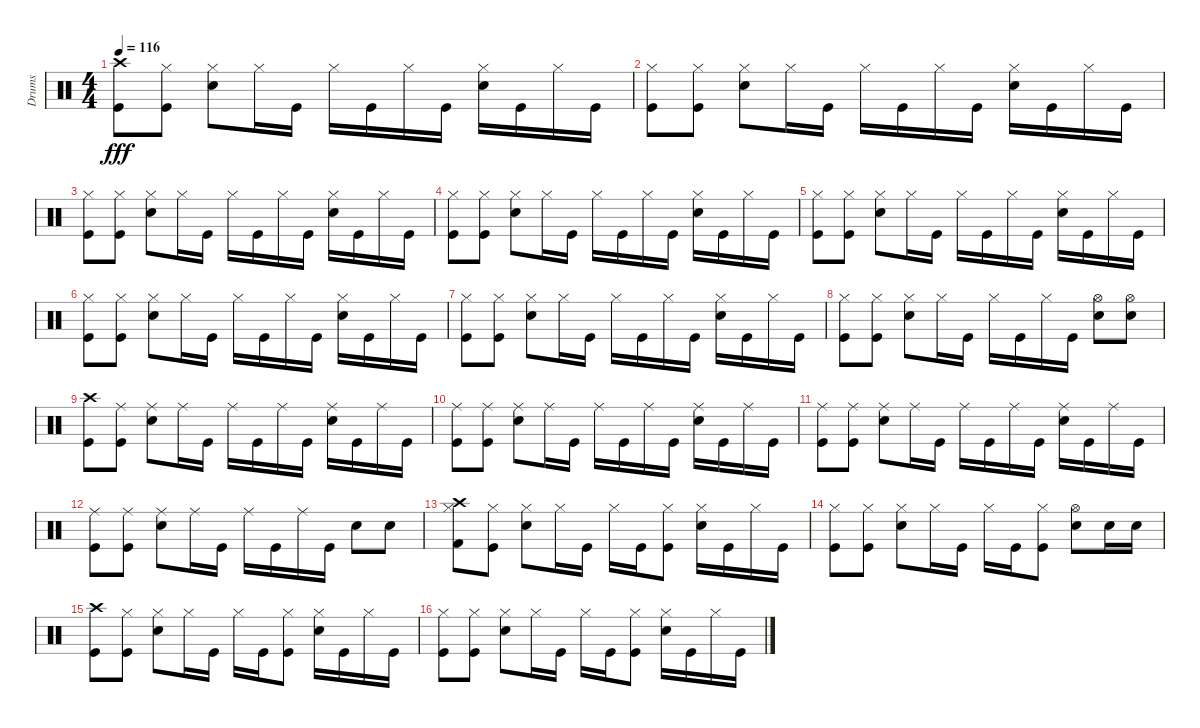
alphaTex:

\track ("Drums" "Drums") {instrument percussion}
\staff {score}
\articulation defaults
\ts (4 4)
\tempo 116
\clef neutral
\ks c
("Kick (hit)" "Crash high (hit)").8{dy fff} ("Hi-Hat (closed)" "Kick (hit)").8 ("Snare (hit) 2" "Hi-Hat (closed)").8 "Hi-Hat (closed)".16 "Kick (hit)".16 "Hi-Hat (closed)".16 "Kick (hit)".16 "Hi-Hat (closed)".16 "Kick (hit)".16 ("Snare (hit) 2" "Hi-Hat (closed)").16 "Kick (hit)".16 "Hi-Hat (closed)".16 "Kick (hit)".16 |
("Hi-Hat (closed)" "Kick (hit)").8 ("Hi-Hat (closed)" "Kick (hit)").8 ("Snare (hit) 2" "Hi-Hat (closed)").8 "Hi-Hat (closed)".16 "Kick (hit)".16 "Hi-Hat (closed)".16 "Kick (hit)".16 "Hi-Hat (closed)".16 "Kick (hit)".16 ("Hi-Hat (closed)" "Snare (hit) 2").16 "Kick (hit)".16 "Hi-Hat (closed)".16 "Kick (hit)".16 |
("Kick (hit)" "Hi-Hat (closed)").8 ("Kick (hit)" "Hi-Hat (closed)").8 ("Snare (hit) 2" "Hi-Hat (closed)").8 "Hi-Hat (closed)".16 "Kick (hit)".16 "Hi-Hat (closed)".16 "Kick (hit)".16 "Hi-Hat (closed)".16 "Kick (hit)".16 ("Hi-Hat (closed)" "Snare (hit) 2").16 "Kick (hit)".16 "Hi-Hat (closed)".16 "Kick (hit)".16 |
("Kick (hit)" "Hi-Hat (closed)").8 ("Hi-Hat (closed)" "Kick (hit)").8 ("Hi-Hat (closed)" "Snare (hit) 2").8 "Hi-Hat (closed)".16 "Kick (hit)".16 "Hi-Hat (closed)".16 "Kick (hit)".16 "Hi-Hat (closed)".16 "Kick (hit)".16 ("Hi-Hat (closed)" "Snare (hit) 2").16 "Kick (hit)".16 "Hi-Hat (closed)".16 "Kick (hit)".16 |
("Kick (hit)" "Hi-Hat (closed)").8 ("Hi-Hat (closed)" "Kick (hit)").8 ("Snare (hit) 2" "Hi-Hat (closed)").8 "Hi-Hat (closed)".16 "Kick (hit)".16 "Hi-Hat (closed)".16 "Kick (hit)".16 "Hi-Hat (closed)".16 "Kick (hit)".16 ("Hi-Hat (closed)" "Snare (hit) 2").16 "Kick (hit)".16 "Hi-Hat (closed)".16 "Kick (hit)".16 |
("Kick (hit)" "Hi-Hat (closed)").8 ("Hi-Hat (closed)" "Kick (hit)").8 ("Hi-Hat (closed)" "Snare (hit) 2").8 "Hi-Hat (closed)".16 "Kick (hit)".16 "Hi-Hat (closed)".16 "Kick (hit)".16 "Hi-Hat (closed)".16 "Kick (hit)".16 ("Snare (hit) 2" "Hi-Hat (closed)").16 "Kick (hit)".16 "Hi-Hat (closed)".16 "Kick (hit)".16 |
("Hi-Hat (closed)" "Kick (hit)").8 ("Kick (hit)" "Hi-Hat (closed)").8 ("Hi-Hat (closed)" "Snare (hit) 2").8 "Hi-Hat (closed)".16 "Kick (hit)".16 "Hi-Hat (closed)".16 "Kick (hit)".16 "Hi-Hat (closed)".16 "Kick (hit)".16 ("Hi-Hat (closed)" "Snare (hit) 2").16 "Kick (hit)".16 "Hi-Hat (closed)".16 "Kick (hit)".16 |
("Hi-Hat (closed)" "Kick (hit)").8 ("Hi-Hat (closed)" "Kick (hit)").8 ("Hi-Hat (closed)" "Snare (hit) 2").8 "Hi-Hat (closed)".16 "Kick (hit)".16 "Hi-Hat (closed)".16 "Kick (hit)".16 "Hi-Hat (closed)".16 "Kick (hit)".16 ("Hi-Hat (open)" "Snare (hit) 2").8 ("Hi-Hat (open)" "Snare (hit) 2").8 |
("Crash high (hit)" "Kick (hit)").8 ("Ride (middle)" "Kick (hit)").8 ("Snare (hit) 2" "Ride (middle)").8 "Ride (middle)".16 "Kick (hit)".16 "Ride (middle)".16 "Kick (hit)".16 "Ride (middle)".16 "Kick (hit)".16 ("Ride (middle)" "Snare (hit) 2").16 "Kick (hit)".16 "Ride (middle)".16 "Kick (hit)".16 |
("Ride (middle)" "Kick (hit)").8 ("Ride (middle)" "Kick (hit)").8 ("Ride (middle)" "Snare (hit) 2").8 "Ride (middle)".16 "Kick (hit)".16 "Ride (middle)".16 "Kick (hit)".16 "Ride (middle)".16 "Kick (hit)".16 ("Snare (hit) 2" "Ride (middle)").16 "Kick (hit)".16 "Ride (middle)".16 "Kick (hit)".16 |
("Ride (middle)" "Kick (hit)").8 ("Kick (hit)" "Ride (middle)").8 ("Snare (hit) 2" "Ride (middle)").8 "Ride (middle)".16 "Kick (hit)".16 "Ride (middle)".16 "Kick (hit)".16 "Ride (middle)".16 "Kick (hit)".16 ("Ride (middle)" "Snare (hit) 2").16 "Kick (hit)".16 "Ride (middle)".16 "Kick (hit)".16 |
("Kick (hit)" "Ride (middle)").8 ("Ride (middle)" "Kick (hit)").8 ("Ride (middle)" "Snare (hit) 2").8 "Ride (middle)".16 "Kick (hit)".16 "Ride (middle)".16 "Kick (hit)".16 "Ride (middle)".16 "Kick (hit)".16 "Snare (hit) 2".8 "Snare (hit) 2".8 |
("Crash high (hit)" "Hi-Hat (closed)" "Kick (hit) 2").8 ("Hi-Hat (closed)" "Kick (hit)").8 ("Hi-Hat (closed)" "Snare (hit) 2").8 "Hi-Hat (closed)".16 "Kick (hit)".16 "Hi-Hat (closed)".16 "Kick (hit)".16 ("Kick (hit)" "Hi-Hat (closed)").8 ("Hi-Hat (closed)" "Snare (hit) 2").16 "Kick (hit)".16 "Hi-Hat (closed)".16 "Kick (hit)".16 |
("Kick (hit)" "Hi-Hat (closed)").8 ("Hi-Hat (closed)" "Kick (hit)").8 ("Snare (hit) 2" "Hi-Hat (closed)").8 "Hi-Hat (closed)".16 "Kick (hit)".16 "Hi-Hat (closed)".16 "Kick (hit)".16 ("Hi-Hat (closed)" "Kick (hit)").8 ("Hi-Hat (open)" "Snare (hit) 2").8 "Snare (hit) 2".16 "Snare (hit) 2".16 |
("Crash high (hit)" "Kick (hit)").8 ("Hi-Hat (closed)" "Kick (hit)").8 ("Snare (hit) 2" "Hi-Hat (closed)").8 "Hi-Hat (closed)".16 "Kick (hit)".16 "Hi-Hat (closed)".16 "Kick (hit)".16 ("Kick (hit)" "Hi-Hat (closed)").8 ("Hi-Hat (closed)" "Snare (hit) 2").16 "Kick (hit)".16 "Hi-Hat (closed)".16 "Kick (hit)".16 |
("Hi-Hat (closed)" "Kick (hit)").8 ("Kick (hit)" "Hi-Hat (closed)").8 ("Snare (hit) 2" "Hi-Hat (closed)").8 "Hi-Hat (closed)".16 "Kick (hit)".16 "Hi-Hat (closed)".16 "Kick (hit)".16 ("Kick (hit)" "Hi-Hat (closed)").8 ("Snare (hit) 2" "Hi-Hat (closed)").16 "Kick (hit)".16 "Hi-Hat (closed)".16 "Kick (hit)".16
